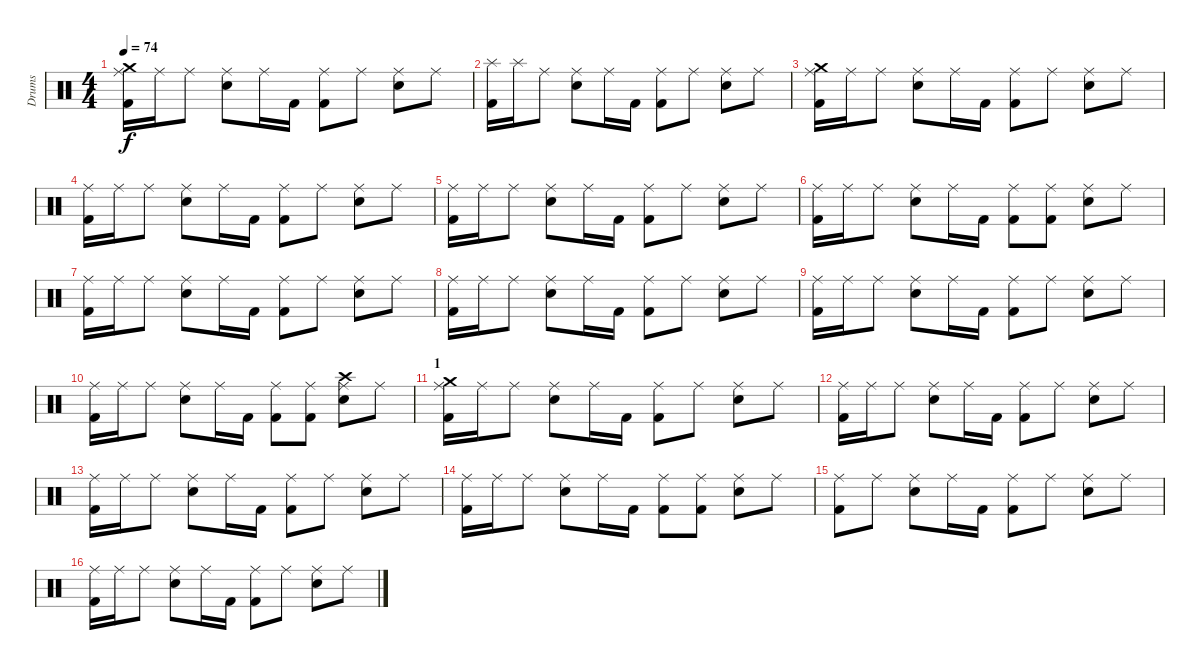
\track ("Drums" "Drums") {instrument percussion}
\staff {score}
\articulation defaults
\ts (4 4)
\tempo 74
\clef neutral
\ks c
("Ride (middle)" "Crash medium (hit)" "Kick (hit) 2").16{dy f} "Ride (middle)".16 "Ride (middle)".8 ("Ride (middle)" "Snare (hit) 2").8 "Ride (middle)".16 "Kick (hit) 2".16 ("Ride (middle)" "Kick (hit) 2").8 "Ride (middle)".8 ("Ride (middle)" "Snare (hit) 2").8 "Ride (middle)".8 |
("Splash (hit)" "Kick (hit) 2").16 "Splash (hit)".16 "Ride (middle)".8 ("Ride (middle)" "Snare (hit) 2").8 "Ride (middle)".16 "Kick (hit) 2".16 ("Ride (middle)" "Kick (hit) 2").8 "Ride (middle)".8 ("Ride (middle)" "Snare (hit) 2").8 "Ride (middle)".8 |
("Ride (middle)" "Crash medium (hit)" "Kick (hit) 2").16 "Ride (middle)".16 "Ride (middle)".8 ("Ride (middle)" "Snare (hit) 2").8 "Ride (middle)".16 "Kick (hit) 2".16 ("Ride (middle)" "Kick (hit) 2").8 "Ride (middle)".8 ("Ride (middle)" "Snare (hit) 2").8 "Ride (middle)".8 |
("Ride (middle)" "Kick (hit) 2").16 "Ride (middle)".16 "Ride (middle)".8 ("Ride (middle)" "Snare (hit) 2").8 "Ride (middle)".16 "Kick (hit) 2".16 ("Ride (middle)" "Kick (hit) 2").8 "Ride (middle)".8 ("Ride (middle)" "Snare (hit) 2").8 "Ride (middle)".8 |
("Ride (middle)" "Kick (hit) 2").16 "Ride (middle)".16 "Ride (middle)".8 ("Ride (middle)" "Snare (hit) 2").8 "Ride (middle)".16 "Kick (hit) 2".16 ("Ride (middle)" "Kick (hit) 2").8 "Ride (middle)".8 ("Ride (middle)" "Snare (hit) 2").8 "Ride (middle)".8 |
("Ride (middle)" "Kick (hit) 2").16 "Ride (middle)".16 "Ride (middle)".8 ("Ride (middle)" "Snare (hit) 2").8 "Ride (middle)".16 "Kick (hit) 2".16 ("Ride (middle)" "Kick (hit) 2").8 ("Ride (middle)" "Kick (hit) 2").8 ("Ride (middle)" "Snare (hit) 2").8 "Ride (middle)".8 |
("Ride (middle)" "Kick (hit) 2").16 "Ride (middle)".16 "Ride (middle)".8 ("Ride (middle)" "Snare (hit) 2").8 "Ride (middle)".16 "Kick (hit) 2".16 ("Ride (middle)" "Kick (hit) 2").8 "Ride (middle)".8 ("Ride (middle)" "Snare (hit) 2").8 "Ride (middle)".8 |
("Ride (middle)" "Kick (hit) 2").16 "Ride (middle)".16 "Ride (middle)".8 ("Ride (middle)" "Snare (hit) 2").8 "Ride (middle)".16 "Kick (hit) 2".16 ("Ride (middle)" "Kick (hit) 2").8 "Ride (middle)".8 ("Ride (middle)" "Snare (hit) 2").8 "Ride (middle)".8 |
("Ride (middle)" "Kick (hit) 2").16 "Ride (middle)".16 "Ride (middle)".8 ("Ride (middle)" "Snare (hit) 2").8 "Ride (middle)".16 "Kick (hit) 2".16 ("Ride (middle)" "Kick (hit) 2").8 "Ride (middle)".8 ("Ride (middle)" "Snare (hit) 2").8 "Ride (middle)".8 |
("Ride (middle)" "Kick (hit) 2").16 "Ride (middle)".16 "Ride (middle)".8 ("Ride (middle)" "Snare (hit) 2").8 "Ride (middle)".16 "Kick (hit) 2".16 ("Ride (middle)" "Kick (hit) 2").8 ("Ride (middle)" "Kick (hit) 2").8 ("Ride (middle)" "Crash high (hit)" "Snare (hit) 2").8 "Ride (middle)".8 |
\section ("" "1")
("Ride (middle)" "Crash medium (hit)" "Kick (hit) 2").16 "Ride (middle)".16 "Ride (middle)".8 ("Ride (middle)" "Snare (hit) 2").8 "Ride (middle)".16 "Kick (hit) 2".16 ("Ride (middle)" "Kick (hit) 2").8 "Ride (middle)".8 ("Ride (middle)" "Snare (hit) 2").8 "Ride (middle)".8 |
("Ride (middle)" "Kick (hit) 2").16 "Ride (middle)".16 "Ride (middle)".8 ("Ride (middle)" "Snare (hit) 2").8 "Ride (middle)".16 "Kick (hit) 2".16 ("Ride (middle)" "Kick (hit) 2").8 "Ride (middle)".8 ("Ride (middle)" "Snare (hit) 2").8 "Ride (middle)".8 |
("Ride (middle)" "Kick (hit) 2").16 "Ride (middle)".16 "Ride (middle)".8 ("Ride (middle)" "Snare (hit) 2").8 "Ride (middle)".16 "Kick (hit) 2".16 ("Ride (middle)" "Kick (hit) 2").8 "Ride (middle)".8 ("Ride (middle)" "Snare (hit) 2").8 "Ride (middle)".8 |
("Ride (middle)" "Kick (hit) 2").16 "Ride (middle)".16 "Ride (middle)".8 ("Ride (middle)" "Snare (hit) 2").8 "Ride (middle)".16 "Kick (hit) 2".16 ("Ride (middle)" "Kick (hit) 2").8 ("Ride (middle)" "Kick (hit) 2").8 ("Ride (middle)" "Snare (hit) 2").8 "Ride (middle)".8 |
("Ride (middle)" "Kick (hit) 2").8 "Ride (middle)".8 ("Ride (middle)" "Snare (hit) 2").8 "Ride (middle)".16 "Kick (hit) 2".16 ("Ride (middle)" "Kick (hit) 2").8 "Ride (middle)".8 ("Ride (middle)" "Snare (hit) 2").8 "Ride (middle)".8 |
("Ride (middle)" "Kick (hit) 2").16 "Ride (middle)".16 "Ride (middle)".8 ("Ride (middle)" "Snare (hit) 2").8 "Ride (middle)".16 "Kick (hit) 2".16 ("Ride (middle)" "Kick (hit) 2").8 "Ride (middle)".8 ("Ride (middle)" "Snare (hit) 2").8 "Ride (middle)".8
